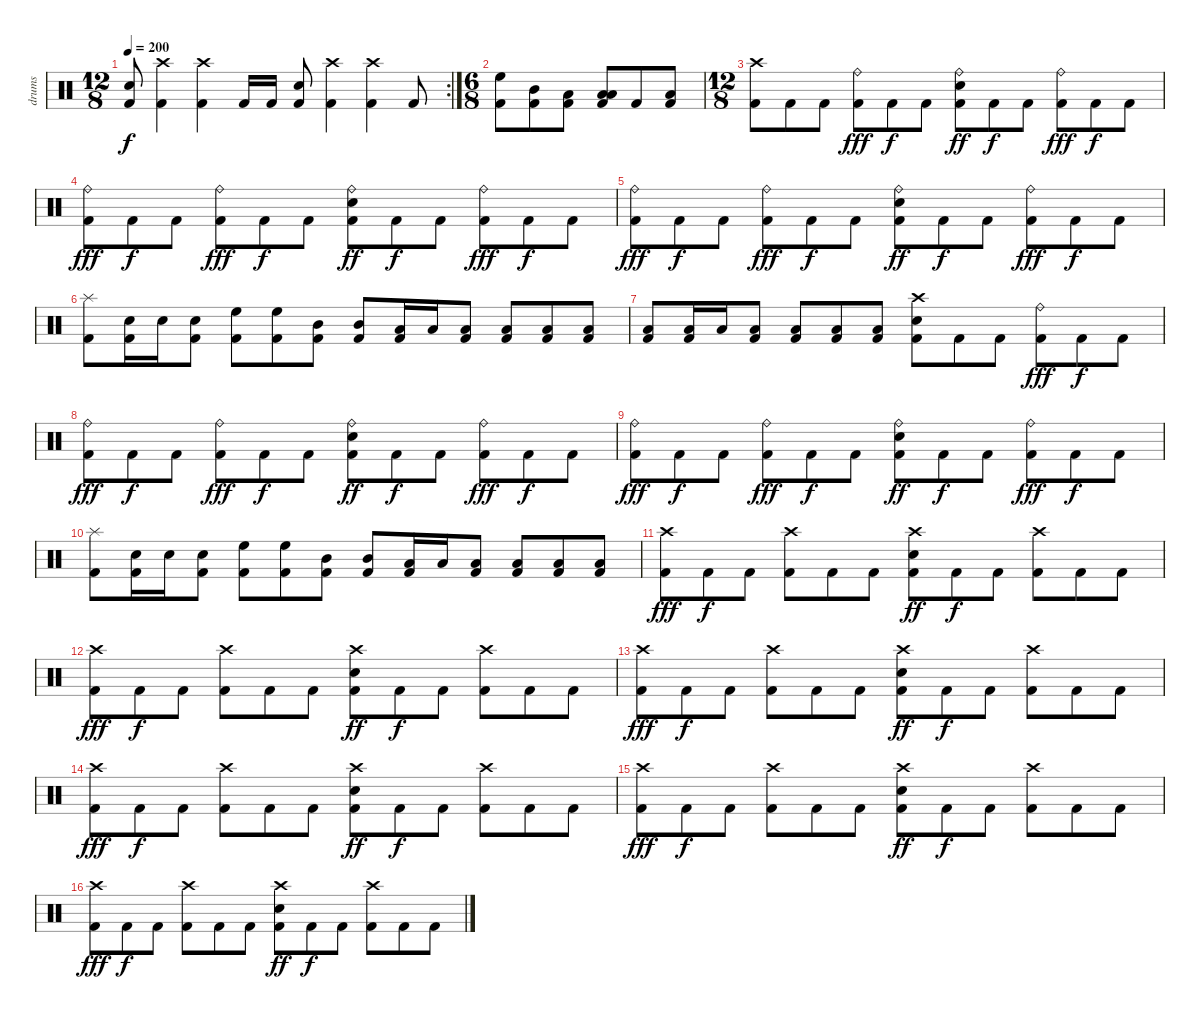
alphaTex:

\track ("drums" "drums") {instrument percussion}
\staff {score}
\articulation defaults
\rc 2
\ts (12 8)
\tempo 200
\clef neutral
\ks c
("Electric Snare (hit)" "Kick (hit) 2").8{dy f} ("Crash high (hit)" "Kick (hit) 2").4 ("Crash high (hit)" "Kick (hit) 2").4 "Kick (hit) 2".16 "Kick (hit) 2".16 ("Electric Snare (hit)" "Kick (hit) 2").8 ("Crash high (hit)" "Kick (hit) 2").4 ("Crash high (hit)" "Kick (hit) 2").4 "Kick (hit) 2".8 |
\ts (6 8)
("High Floor Tom (hit)" "Kick (hit) 2").8 ("Mid Tom (hit)" "Kick (hit) 2").8 ("Low Tom (hit)" "Kick (hit) 2").8 ("Low Tom (hit)" "Low Floor Tom (hit)" "Kick (hit) 2").8 "Kick (hit) 2".8 ("Low Floor Tom (hit)" "Kick (hit) 2").8 |
\ts (12 8)
("Crash high (hit)" "Kick (hit) 2").8 "Kick (hit) 2".8 "Kick (hit) 2".8 ("Ride (bell)" "Kick (hit) 2").8{dy fff} "Kick (hit) 2".8{dy f} "Kick (hit) 2".8 ("Ride (bell)" "Electric Snare (hit)" "Kick (hit) 2").8{dy ff} "Kick (hit) 2".8{dy f} "Kick (hit) 2".8 ("Ride (bell)" "Kick (hit) 2").8{dy fff} "Kick (hit) 2".8{dy f} "Kick (hit) 2".8 |
("Ride (bell)" "Kick (hit) 2").8{dy fff} "Kick (hit) 2".8{dy f} "Kick (hit) 2".8 ("Ride (bell)" "Kick (hit) 2").8{dy fff} "Kick (hit) 2".8{dy f} "Kick (hit) 2".8 ("Ride (bell)" "Electric Snare (hit)" "Kick (hit) 2").8{dy ff} "Kick (hit) 2".8{dy f} "Kick (hit) 2".8 ("Ride (bell)" "Kick (hit) 2").8{dy fff} "Kick (hit) 2".8{dy f} "Kick (hit) 2".8 |
("Ride (bell)" "Kick (hit) 2").8{dy fff} "Kick (hit) 2".8{dy f} "Kick (hit) 2".8 ("Ride (bell)" "Kick (hit) 2").8{dy fff} "Kick (hit) 2".8{dy f} "Kick (hit) 2".8 ("Ride (bell)" "Electric Snare (hit)" "Kick (hit) 2").8{dy ff} "Kick (hit) 2".8{dy f} "Kick (hit) 2".8 ("Ride (bell)" "Kick (hit) 2").8{dy fff} "Kick (hit) 2".8{dy f} "Kick (hit) 2".8 |
("Splash (hit)" "Kick (hit) 2").8 ("Electric Snare (hit)" "Kick (hit) 2").16 "Electric Snare (hit)".16 ("Electric Snare (hit)" "Kick (hit) 2").8 ("High Floor Tom (hit)" "Kick (hit) 2").8 ("High Floor Tom (hit)" "Kick (hit) 2").8 ("Mid Tom (hit)" "Kick (hit) 2").8 ("Mid Tom (hit)" "Kick (hit) 2").8 ("Low Tom (hit)" "Kick (hit) 2").16 "Low Tom (hit)".16 ("Low Tom (hit)" "Kick (hit) 2").8 ("Low Floor Tom (hit)" "Kick (hit) 2").8 ("Low Floor Tom (hit)" "Kick (hit) 2").8 ("Low Floor Tom (hit)" "Kick (hit) 2").8 |
("Low Tom (hit)" "Kick (hit) 2").8 ("Low Floor Tom (hit)" "Kick (hit) 2").16 "Low Floor Tom (hit)".16 ("Low Floor Tom (hit)" "Kick (hit) 2").8 ("Low Tom (hit)" "Kick (hit) 2").8 ("Low Floor Tom (hit)" "Kick (hit) 2").8 ("Low Floor Tom (hit)" "Kick (hit) 2").8 ("Crash high (hit)" "Electric Snare (hit)" "Kick (hit) 2").8 "Kick (hit) 2".8 "Kick (hit) 2".8 ("Ride (bell)" "Kick (hit) 2").8{dy fff} "Kick (hit) 2".8{dy f} "Kick (hit) 2".8 |
("Ride (bell)" "Kick (hit) 2").8{dy fff} "Kick (hit) 2".8{dy f} "Kick (hit) 2".8 ("Ride (bell)" "Kick (hit) 2").8{dy fff} "Kick (hit) 2".8{dy f} "Kick (hit) 2".8 ("Ride (bell)" "Electric Snare (hit)" "Kick (hit) 2").8{dy ff} "Kick (hit) 2".8{dy f} "Kick (hit) 2".8 ("Ride (bell)" "Kick (hit) 2").8{dy fff} "Kick (hit) 2".8{dy f} "Kick (hit) 2".8 |
("Ride (bell)" "Kick (hit) 2").8{dy fff} "Kick (hit) 2".8{dy f} "Kick (hit) 2".8 ("Ride (bell)" "Kick (hit) 2").8{dy fff} "Kick (hit) 2".8{dy f} "Kick (hit) 2".8 ("Ride (bell)" "Electric Snare (hit)" "Kick (hit) 2").8{dy ff} "Kick (hit) 2".8{dy f} "Kick (hit) 2".8 ("Ride (bell)" "Kick (hit) 2").8{dy fff} "Kick (hit) 2".8{dy f} "Kick (hit) 2".8 |
("Splash (hit)" "Kick (hit) 2").8 ("Electric Snare (hit)" "Kick (hit) 2").16 "Electric Snare (hit)".16 ("Electric Snare (hit)" "Kick (hit) 2").8 ("High Floor Tom (hit)" "Kick (hit) 2").8 ("High Floor Tom (hit)" "Kick (hit) 2").8 ("Mid Tom (hit)" "Kick (hit) 2").8 ("Mid Tom (hit)" "Kick (hit) 2").8 ("Low Tom (hit)" "Kick (hit) 2").16 "Low Tom (hit)".16 ("Low Tom (hit)" "Kick (hit) 2").8 ("Low Floor Tom (hit)" "Kick (hit) 2").8 ("Low Floor Tom (hit)" "Kick (hit) 2").8 ("Low Floor Tom (hit)" "Kick (hit) 2").8 |
("Crash high (hit)" "Kick (hit) 2").8{dy fff} "Kick (hit) 2".8{dy f} "Kick (hit) 2".8 ("Crash high (hit)" "Kick (hit) 2").8 "Kick (hit) 2".8 "Kick (hit) 2".8 ("Crash high (hit)" "Electric Snare (hit)" "Kick (hit) 2").8{dy ff} "Kick (hit) 2".8{dy f} "Kick (hit) 2".8 ("Crash high (hit)" "Kick (hit) 2").8 "Kick (hit) 2".8 "Kick (hit) 2".8 |
("Crash high (hit)" "Kick (hit) 2").8{dy fff} "Kick (hit) 2".8{dy f} "Kick (hit) 2".8 ("Crash high (hit)" "Kick (hit) 2").8 "Kick (hit) 2".8 "Kick (hit) 2".8 ("Crash high (hit)" "Electric Snare (hit)" "Kick (hit) 2").8{dy ff} "Kick (hit) 2".8{dy f} "Kick (hit) 2".8 ("Crash high (hit)" "Kick (hit) 2").8 "Kick (hit) 2".8 "Kick (hit) 2".8 |
("Crash high (hit)" "Kick (hit) 2").8{dy fff} "Kick (hit) 2".8{dy f} "Kick (hit) 2".8 ("Crash high (hit)" "Kick (hit) 2").8 "Kick (hit) 2".8 "Kick (hit) 2".8 ("Crash high (hit)" "Electric Snare (hit)" "Kick (hit) 2").8{dy ff} "Kick (hit) 2".8{dy f} "Kick (hit) 2".8 ("Crash high (hit)" "Kick (hit) 2").8 "Kick (hit) 2".8 "Kick (hit) 2".8 |
("Crash high (hit)" "Kick (hit) 2").8{dy fff} "Kick (hit) 2".8{dy f} "Kick (hit) 2".8 ("Crash high (hit)" "Kick (hit) 2").8 "Kick (hit) 2".8 "Kick (hit) 2".8 ("Crash high (hit)" "Electric Snare (hit)" "Kick (hit) 2").8{dy ff} "Kick (hit) 2".8{dy f} "Kick (hit) 2".8 ("Crash high (hit)" "Kick (hit) 2").8 "Kick (hit) 2".8 "Kick (hit) 2".8 |
("Crash high (hit)" "Kick (hit) 2").8{dy fff} "Kick (hit) 2".8{dy f} "Kick (hit) 2".8 ("Crash high (hit)" "Kick (hit) 2").8 "Kick (hit) 2".8 "Kick (hit) 2".8 ("Crash high (hit)" "Electric Snare (hit)" "Kick (hit) 2").8{dy ff} "Kick (hit) 2".8{dy f} "Kick (hit) 2".8 ("Crash high (hit)" "Kick (hit) 2").8 "Kick (hit) 2".8 "Kick (hit) 2".8 |
("Crash high (hit)" "Kick (hit) 2").8{dy fff} "Kick (hit) 2".8{dy f} "Kick (hit) 2".8 ("Crash high (hit)" "Kick (hit) 2").8 "Kick (hit) 2".8 "Kick (hit) 2".8 ("Crash high (hit)" "Electric Snare (hit)" "Kick (hit) 2").8{dy ff} "Kick (hit) 2".8{dy f} "Kick (hit) 2".8 ("Crash high (hit)" "Kick (hit) 2").8 "Kick (hit) 2".8 "Kick (hit) 2".8
